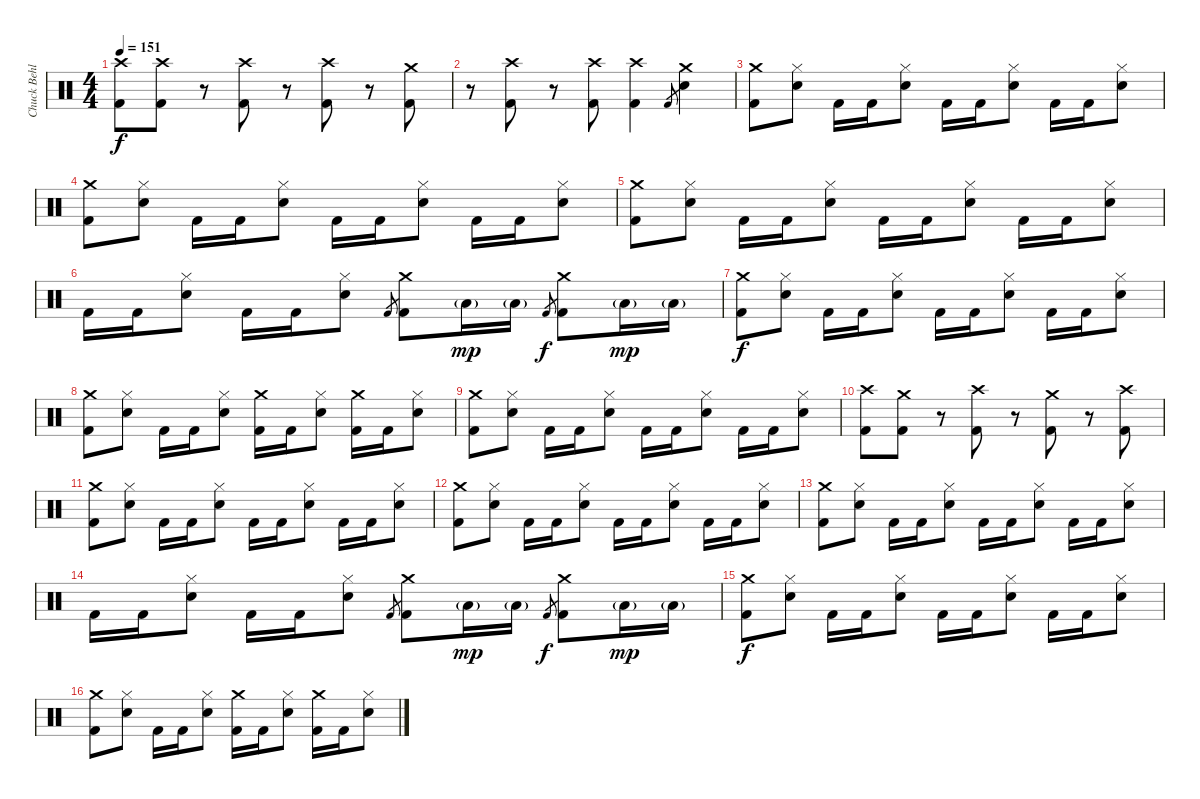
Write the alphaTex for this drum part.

\track ("Chuck Behler" "Chuck Behl") {instrument percussion}
\staff {score}
\articulation defaults
\ts (4 4)
\tempo 151
\clef neutral
\ks c
("Crash high (hit)" "Kick (hit) 2").8{dy f} ("Crash high (hit)" "Kick (hit) 2").8 r.8 ("Crash high (hit)" "Kick (hit) 2").8 r.8 ("Crash high (hit)" "Kick (hit) 2").8 r.8 ("Crash medium (hit)" "Kick (hit) 2").8 |
r.8 ("Crash high (hit)" "Kick (hit) 2").8 r.8 ("Crash high (hit)" "Kick (hit) 2").8 ("Crash high (hit)" "Kick (hit) 2").4 "Kick (hit) 2".8{gr} ("Crash medium (hit)" "Snare (hit) 2").4 |
("Crash medium (hit)" "Kick (hit) 2").8 ("Hi-Hat (closed)" "Electric Snare (hit)").8 "Kick (hit) 2".16 "Kick (hit) 2".16 ("Hi-Hat (closed)" "Electric Snare (hit)").8 "Kick (hit) 2".16 "Kick (hit) 2".16 ("Hi-Hat (closed)" "Electric Snare (hit)").8 "Kick (hit) 2".16 "Kick (hit) 2".16 ("Hi-Hat (closed)" "Electric Snare (hit)").8 |
("Crash medium (hit)" "Kick (hit) 2").8 ("Hi-Hat (closed)" "Electric Snare (hit)").8 "Kick (hit) 2".16 "Kick (hit) 2".16 ("Hi-Hat (closed)" "Electric Snare (hit)").8 "Kick (hit) 2".16 "Kick (hit) 2".16 ("Hi-Hat (closed)" "Electric Snare (hit)").8 "Kick (hit) 2".16 "Kick (hit) 2".16 ("Hi-Hat (closed)" "Electric Snare (hit)").8 |
("Crash medium (hit)" "Kick (hit) 2").8 ("Hi-Hat (closed)" "Electric Snare (hit)").8 "Kick (hit) 2".16 "Kick (hit) 2".16 ("Hi-Hat (closed)" "Electric Snare (hit)").8 "Kick (hit) 2".16 "Kick (hit) 2".16 ("Hi-Hat (closed)" "Electric Snare (hit)").8 "Kick (hit) 2".16 "Kick (hit) 2".16 ("Hi-Hat (closed)" "Electric Snare (hit)").8 |
"Kick (hit) 2".16 "Kick (hit) 2".16 ("Hi-Hat (closed)" "Electric Snare (hit)").8 "Kick (hit) 2".16 "Kick (hit) 2".16 ("Hi-Hat (closed)" "Electric Snare (hit)").8 "Kick (hit) 2".8{gr} ("Crash medium (hit)" "Kick (hit) 2").8 "Low Tom (hit)"{g}.16{dy mp} "Low Tom (hit)"{g}.16 "Kick (hit) 2".8{gr dy f} ("Crash medium (hit)" "Kick (hit) 2").8 "Low Tom (hit)"{g}.16{dy mp} "Low Tom (hit)"{g}.16 |
("Crash medium (hit)" "Kick (hit) 2").8{dy f} ("Hi-Hat (closed)" "Electric Snare (hit)").8 "Kick (hit) 2".16 "Kick (hit) 2".16 ("Hi-Hat (closed)" "Electric Snare (hit)").8 "Kick (hit) 2".16 "Kick (hit) 2".16 ("Hi-Hat (closed)" "Electric Snare (hit)").8 "Kick (hit) 2".16 "Kick (hit) 2".16 ("Hi-Hat (closed)" "Electric Snare (hit)").8 |
("Crash medium (hit)" "Kick (hit) 2").8 ("Hi-Hat (closed)" "Electric Snare (hit)").8 "Kick (hit) 2".16 "Kick (hit) 2".16 ("Hi-Hat (closed)" "Electric Snare (hit)").8 ("Crash medium (hit)" "Kick (hit) 2").16 "Kick (hit) 2".16 ("Hi-Hat (closed)" "Electric Snare (hit)").8 ("Crash medium (hit)" "Kick (hit) 2").16 "Kick (hit) 2".16 ("Hi-Hat (closed)" "Electric Snare (hit)").8 |
("Crash medium (hit)" "Kick (hit) 2").8 ("Hi-Hat (closed)" "Electric Snare (hit)").8 "Kick (hit) 2".16 "Kick (hit) 2".16 ("Hi-Hat (closed)" "Electric Snare (hit)").8 "Kick (hit) 2".16 "Kick (hit) 2".16 ("Hi-Hat (closed)" "Electric Snare (hit)").8 "Kick (hit) 2".16 "Kick (hit) 2".16 ("Hi-Hat (closed)" "Electric Snare (hit)").8 |
("Crash high (hit)" "Kick (hit) 2").8 ("Crash medium (hit)" "Kick (hit) 2").8 r.8 ("Crash high (hit)" "Kick (hit) 2").8 r.8 ("Crash medium (hit)" "Kick (hit) 2").8 r.8 ("Crash high (hit)" "Kick (hit) 2").8 |
("Crash medium (hit)" "Kick (hit) 2").8 ("Hi-Hat (closed)" "Electric Snare (hit)").8 "Kick (hit) 2".16 "Kick (hit) 2".16 ("Hi-Hat (closed)" "Electric Snare (hit)").8 "Kick (hit) 2".16 "Kick (hit) 2".16 ("Hi-Hat (closed)" "Electric Snare (hit)").8 "Kick (hit) 2".16 "Kick (hit) 2".16 ("Hi-Hat (closed)" "Electric Snare (hit)").8 |
("Crash medium (hit)" "Kick (hit) 2").8 ("Hi-Hat (closed)" "Electric Snare (hit)").8 "Kick (hit) 2".16 "Kick (hit) 2".16 ("Hi-Hat (closed)" "Electric Snare (hit)").8 "Kick (hit) 2".16 "Kick (hit) 2".16 ("Hi-Hat (closed)" "Electric Snare (hit)").8 "Kick (hit) 2".16 "Kick (hit) 2".16 ("Hi-Hat (closed)" "Electric Snare (hit)").8 |
("Crash medium (hit)" "Kick (hit) 2").8 ("Hi-Hat (closed)" "Electric Snare (hit)").8 "Kick (hit) 2".16 "Kick (hit) 2".16 ("Hi-Hat (closed)" "Electric Snare (hit)").8 "Kick (hit) 2".16 "Kick (hit) 2".16 ("Hi-Hat (closed)" "Electric Snare (hit)").8 "Kick (hit) 2".16 "Kick (hit) 2".16 ("Hi-Hat (closed)" "Electric Snare (hit)").8 |
"Kick (hit) 2".16 "Kick (hit) 2".16 ("Hi-Hat (closed)" "Electric Snare (hit)").8 "Kick (hit) 2".16 "Kick (hit) 2".16 ("Hi-Hat (closed)" "Electric Snare (hit)").8 "Kick (hit) 2".8{gr} ("Crash medium (hit)" "Kick (hit) 2").8 "Low Tom (hit)"{g}.16{dy mp} "Low Tom (hit)"{g}.16 "Kick (hit) 2".8{gr dy f} ("Crash medium (hit)" "Kick (hit) 2").8 "Low Tom (hit)"{g}.16{dy mp} "Low Tom (hit)"{g}.16 |
("Crash medium (hit)" "Kick (hit) 2").8{dy f} ("Hi-Hat (closed)" "Electric Snare (hit)").8 "Kick (hit) 2".16 "Kick (hit) 2".16 ("Hi-Hat (closed)" "Electric Snare (hit)").8 "Kick (hit) 2".16 "Kick (hit) 2".16 ("Hi-Hat (closed)" "Electric Snare (hit)").8 "Kick (hit) 2".16 "Kick (hit) 2".16 ("Hi-Hat (closed)" "Electric Snare (hit)").8 |
("Crash medium (hit)" "Kick (hit) 2").8 ("Hi-Hat (closed)" "Electric Snare (hit)").8 "Kick (hit) 2".16 "Kick (hit) 2".16 ("Hi-Hat (closed)" "Electric Snare (hit)").8 ("Crash medium (hit)" "Kick (hit) 2").16 "Kick (hit) 2".16 ("Hi-Hat (closed)" "Electric Snare (hit)").8 ("Crash medium (hit)" "Kick (hit) 2").16 "Kick (hit) 2".16 ("Hi-Hat (closed)" "Electric Snare (hit)").8
